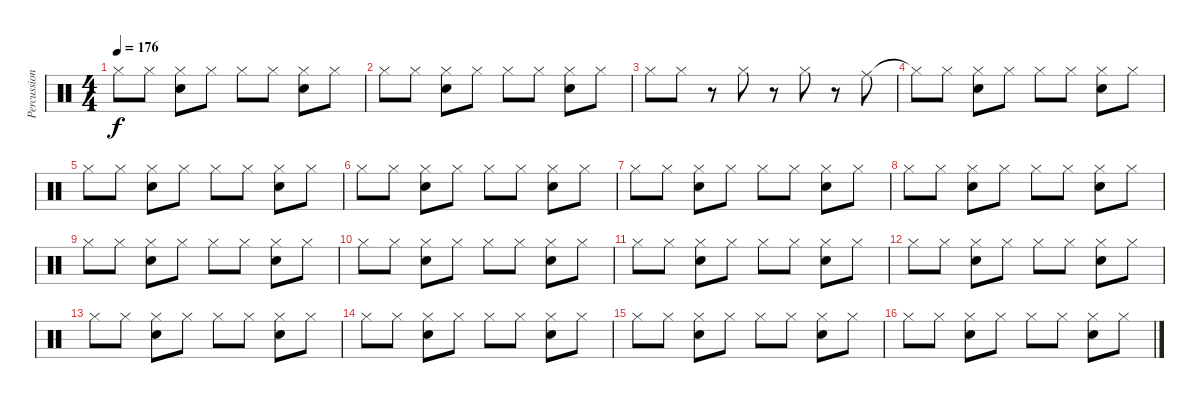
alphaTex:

\track ("Percussions" "Percussion") {instrument percussion}
\staff {score}
\articulation defaults
\ts (4 4)
\tempo 176
\clef neutral
\ks c "Hi-Hat (closed)".8{dy f} "Hi-Hat (closed)".8
("Hi-Hat (closed)" "Snare (hit) 2").8 "Hi-Hat (closed)".8 "Hi-Hat (closed)".8 "Hi-Hat (closed)".8 ("Hi-Hat (closed)" "Snare (hit) 2").8 "Hi-Hat (closed)".8 |
"Hi-Hat (closed)".8 "Hi-Hat (closed)".8 ("Hi-Hat (closed)" "Snare (hit) 2").8 "Hi-Hat (closed)".8 "Hi-Hat (closed)".8 "Hi-Hat (closed)".8 ("Hi-Hat (closed)" "Snare (hit) 2").8 "Hi-Hat (closed)".8 |
"Hi-Hat (closed)".8 "Hi-Hat (closed)".8 r.8 "Hi-Hat (closed)".8 r.8 "Hi-Hat (closed)".8 r.8 "Ride (middle)".8 |
"Hi-Hat (closed)"{t}.8 "Hi-Hat (closed)".8 ("Hi-Hat (closed)" "Snare (hit) 2").8 "Hi-Hat (closed)".8 "Hi-Hat (closed)".8 "Hi-Hat (closed)".8 ("Hi-Hat (closed)" "Snare (hit) 2").8 "Hi-Hat (closed)".8 |
"Hi-Hat (closed)".8 "Hi-Hat (closed)".8 ("Hi-Hat (closed)" "Snare (hit) 2").8 "Hi-Hat (closed)".8 "Hi-Hat (closed)".8 "Hi-Hat (closed)".8 ("Hi-Hat (closed)" "Snare (hit) 2").8 "Hi-Hat (closed)".8 |
"Hi-Hat (closed)".8 "Hi-Hat (closed)".8 ("Hi-Hat (closed)" "Snare (hit) 2").8 "Hi-Hat (closed)".8 "Hi-Hat (closed)".8 "Hi-Hat (closed)".8 ("Hi-Hat (closed)" "Snare (hit) 2").8 "Hi-Hat (closed)".8 |
"Hi-Hat (closed)".8 "Hi-Hat (closed)".8 ("Hi-Hat (closed)" "Snare (hit) 2").8 "Hi-Hat (closed)".8 "Hi-Hat (closed)".8 "Hi-Hat (closed)".8 ("Hi-Hat (closed)" "Snare (hit) 2").8 "Hi-Hat (closed)".8 |
"Hi-Hat (closed)".8 "Hi-Hat (closed)".8 ("Hi-Hat (closed)" "Snare (hit) 2").8 "Hi-Hat (closed)".8 "Hi-Hat (closed)".8 "Hi-Hat (closed)".8 ("Hi-Hat (closed)" "Snare (hit) 2").8 "Hi-Hat (closed)".8 |
"Hi-Hat (closed)".8 "Hi-Hat (closed)".8 ("Hi-Hat (closed)" "Snare (hit) 2").8 "Hi-Hat (closed)".8 "Hi-Hat (closed)".8 "Hi-Hat (closed)".8 ("Hi-Hat (closed)" "Snare (hit) 2").8 "Hi-Hat (closed)".8 |
"Hi-Hat (closed)".8 "Hi-Hat (closed)".8 ("Hi-Hat (closed)" "Snare (hit) 2").8 "Hi-Hat (closed)".8 "Hi-Hat (closed)".8 "Hi-Hat (closed)".8 ("Hi-Hat (closed)" "Snare (hit) 2").8 "Hi-Hat (closed)".8 |
"Hi-Hat (closed)".8 "Hi-Hat (closed)".8 ("Hi-Hat (closed)" "Snare (hit) 2").8 "Hi-Hat (closed)".8 "Hi-Hat (closed)".8 "Hi-Hat (closed)".8 ("Hi-Hat (closed)" "Snare (hit) 2").8 "Hi-Hat (closed)".8 |
"Hi-Hat (closed)".8 "Hi-Hat (closed)".8 ("Hi-Hat (closed)" "Snare (hit) 2").8 "Hi-Hat (closed)".8 "Hi-Hat (closed)".8 "Hi-Hat (closed)".8 ("Hi-Hat (closed)" "Snare (hit) 2").8 "Hi-Hat (closed)".8 |
"Hi-Hat (closed)".8 "Hi-Hat (closed)".8 ("Hi-Hat (closed)" "Snare (hit) 2").8 "Hi-Hat (closed)".8 "Hi-Hat (closed)".8 "Hi-Hat (closed)".8 ("Hi-Hat (closed)" "Snare (hit) 2").8 "Hi-Hat (closed)".8 |
"Hi-Hat (closed)".8 "Hi-Hat (closed)".8 ("Hi-Hat (closed)" "Snare (hit) 2").8 "Hi-Hat (closed)".8 "Hi-Hat (closed)".8 "Hi-Hat (closed)".8 ("Hi-Hat (closed)" "Snare (hit) 2").8 "Hi-Hat (closed)".8 |
"Hi-Hat (closed)".8 "Hi-Hat (closed)".8 ("Hi-Hat (closed)" "Snare (hit) 2").8 "Hi-Hat (closed)".8 "Hi-Hat (closed)".8 "Hi-Hat (closed)".8 ("Hi-Hat (closed)" "Snare (hit) 2").8 "Hi-Hat (closed)".8 |
"Hi-Hat (closed)".8 "Hi-Hat (closed)".8 ("Hi-Hat (closed)" "Snare (hit) 2").8 "Hi-Hat (closed)".8 "Hi-Hat (closed)".8 "Hi-Hat (closed)".8 ("Hi-Hat (closed)" "Snare (hit) 2").8 "Hi-Hat (closed)".8
